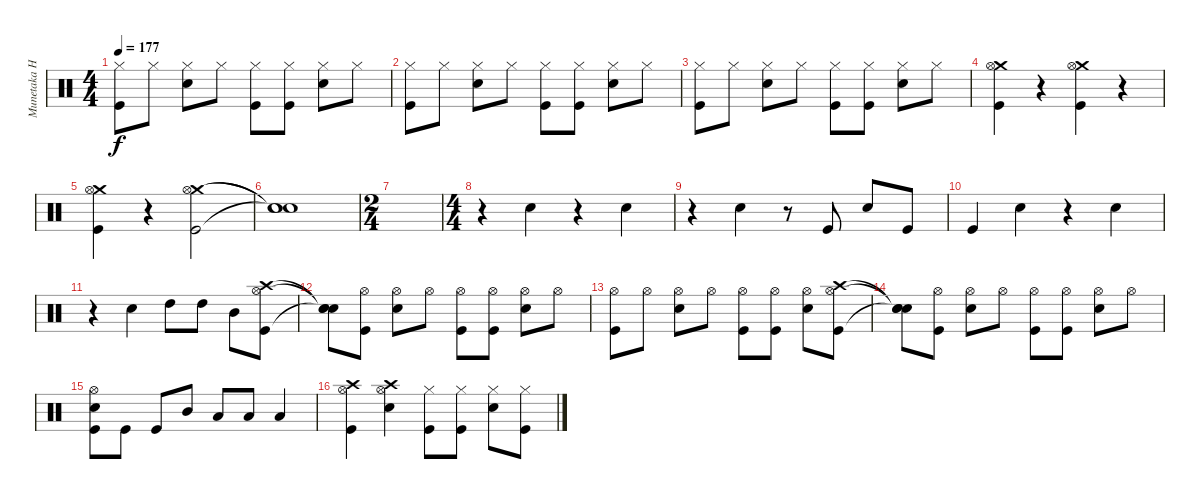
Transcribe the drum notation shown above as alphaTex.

\track ("Munetaka Higuchi" "Munetaka H") {instrument percussion}
\staff {score}
\articulation defaults
\ts (4 4)
\tempo 177
\clef neutral
\ks c
("Hi-Hat (closed)" "Kick (hit)").8{dy f} "Hi-Hat (closed)".8 ("Hi-Hat (closed)" "Snare (hit) 2").8 "Hi-Hat (closed)".8 ("Hi-Hat (closed)" "Kick (hit)").8 ("Hi-Hat (closed)" "Kick (hit)").8 ("Hi-Hat (closed)" "Snare (hit) 2").8 "Hi-Hat (closed)".8 |
("Hi-Hat (closed)" "Kick (hit)").8 "Hi-Hat (closed)".8 ("Hi-Hat (closed)" "Snare (hit) 2").8 "Hi-Hat (closed)".8 ("Hi-Hat (closed)" "Kick (hit)").8 ("Hi-Hat (closed)" "Kick (hit)").8 ("Hi-Hat (closed)" "Snare (hit) 2").8 "Hi-Hat (closed)".8 |
("Hi-Hat (closed)" "Kick (hit)").8 "Hi-Hat (closed)".8 ("Hi-Hat (closed)" "Snare (hit) 2").8 "Hi-Hat (closed)".8 ("Hi-Hat (closed)" "Kick (hit)").8 ("Hi-Hat (closed)" "Kick (hit)").8 ("Hi-Hat (closed)" "Snare (hit) 2").8 "Hi-Hat (closed)".8 |
("Crash medium (hit)" "Hi-Hat (open)" "Kick (hit)").4 r.4 ("Crash medium (hit)" "Hi-Hat (open)" "Kick (hit)").4 r.4 |
("Crash medium (hit)" "Hi-Hat (open)" "Kick (hit)").4 r.4 ("Crash medium (hit)" "Hi-Hat (open)" "Kick (hit)").2 |
("Snare (hit)"{t} "Snare (hit)"{t} "Snare (hit)"{t}).1 |
\ts (2 4)
|
\ts (4 4)
r.4 "Snare (hit) 2".4 r.4 "Snare (hit) 2".4 |
r.4 "Snare (hit) 2".4 r.8 "Kick (hit)".8 "Snare (hit) 2".8 "Kick (hit)".8 |
"Kick (hit)".4 "Snare (hit) 2".4 r.4 "Snare (hit) 2".4 |
r.4 "Snare (hit) 2".4 "High Tom (hit)".8 "High Tom (hit)".8 "Mid Tom (hit)".8 ("Crash high (hit)" "Hi-Hat (open)" "Kick (hit)").8 |
("Snare (hit)"{t} "Snare (hit)"{t} "Snare (hit)"{t}).8 ("Hi-Hat (open)" "Kick (hit)").8 ("Hi-Hat (open)" "Snare (hit) 2").8 "Hi-Hat (open)".8 ("Hi-Hat (open)" "Kick (hit)").8 ("Hi-Hat (open)" "Kick (hit)").8 ("Hi-Hat (open)" "Snare (hit) 2").8 "Hi-Hat (open)".8 |
("Hi-Hat (open)" "Kick (hit)").8 "Hi-Hat (open)".8 ("Hi-Hat (open)" "Snare (hit) 2").8 "Hi-Hat (open)".8 ("Hi-Hat (open)" "Kick (hit)").8 ("Hi-Hat (open)" "Kick (hit)").8 ("Hi-Hat (open)" "Snare (hit) 2").8 ("Crash high (hit)" "Hi-Hat (open)" "Kick (hit)").8 |
("Snare (hit)"{t} "Snare (hit)"{t} "Snare (hit)"{t}).8 ("Hi-Hat (open)" "Kick (hit)").8 ("Hi-Hat (open)" "Snare (hit) 2").8 "Hi-Hat (open)".8 ("Hi-Hat (open)" "Kick (hit)").8 ("Hi-Hat (open)" "Kick (hit)").8 ("Hi-Hat (open)" "Snare (hit) 2").8 "Hi-Hat (open)".8 |
("Hi-Hat (open)" "Snare (hit) 2" "Kick (hit)").8 "Kick (hit)".8 "Kick (hit)".8 "Mid Tom (hit)".8 "Low Tom (hit)".8 "Low Tom (hit)".8 "Low Tom (hit)".4 |
("Crash high (hit)" "Hi-Hat (open)" "Kick (hit)").4 ("Crash high (hit)" "Hi-Hat (open)" "Snare (hit) 2").4 ("Hi-Hat (closed)" "Kick (hit)").8 ("Hi-Hat (closed)" "Kick (hit)").8 ("Hi-Hat (closed)" "Snare (hit) 2").8 ("Hi-Hat (closed)" "Kick (hit)").8
